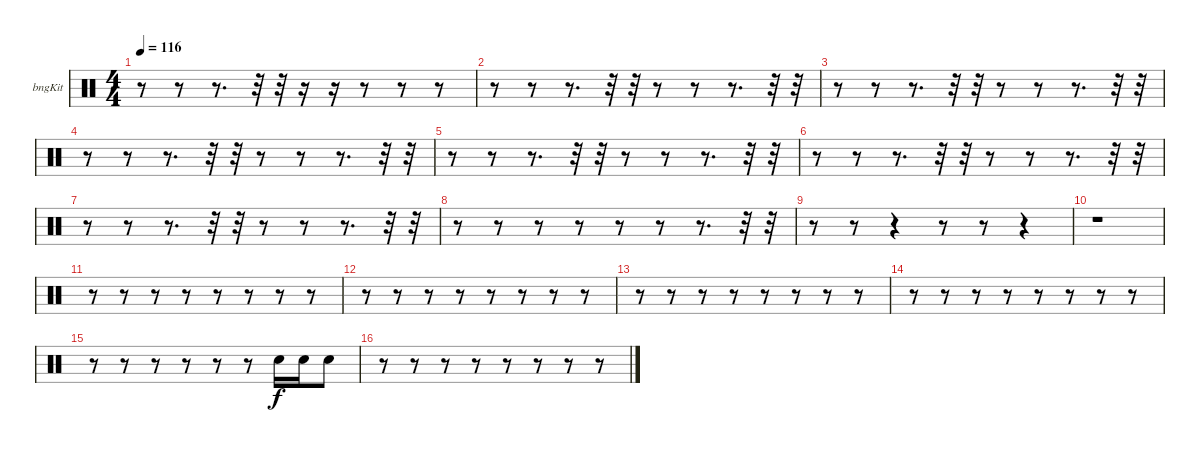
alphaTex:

\bracketExtendMode groupsimilarinstruments
\firstSystemTrackNameOrientation horizontal
\otherSystemsTrackNameOrientation horizontal
\track ("Bongos" "bngKit") {instrument percussion}
\staff {score}
\articulation defaults
\ts (4 4)
\tempo 116
\clef neutral
\ks c
r.8{dy f} r.8 r.8{d} r.32 r.32 r.16 r.16 r.8 r.8 r.8 |
r.8 r.8 r.8{d} r.32 r.32 r.8 r.8 r.8{d} r.32 r.32 |
r.8 r.8 r.8{d} r.32 r.32 r.8 r.8 r.8{d} r.32 r.32 |
r.8 r.8 r.8{d} r.32 r.32 r.8 r.8 r.8{d} r.32 r.32 |
r.8 r.8 r.8{d} r.32 r.32 r.8 r.8 r.8{d} r.32 r.32 |
r.8 r.8 r.8{d} r.32 r.32 r.8 r.8 r.8{d} r.32 r.32 |
r.8 r.8 r.8{d} r.32 r.32 r.8 r.8 r.8{d} r.32 r.32 |
r.8 r.8 r.8 r.8 r.8 r.8 r.8{d} r.32 r.32 |
r.8 r.8 r.4 r.8 r.8 r.4 |
r.1 |
r.8 r.8 r.8 r.8 r.8 r.8 r.8 r.8 |
r.8 r.8 r.8 r.8 r.8 r.8 r.8 r.8 |
r.8 r.8 r.8 r.8 r.8 r.8 r.8 r.8 |
r.8 r.8 r.8 r.8 r.8 r.8 r.8 r.8 |
r.8 r.8 r.8 r.8 r.8 r.8 "Snare (hit) 2".16 "Snare (hit) 2".16 "Snare (hit) 2".8 |
r.8 r.8 r.8 r.8 r.8 r.8 r.8 r.8
